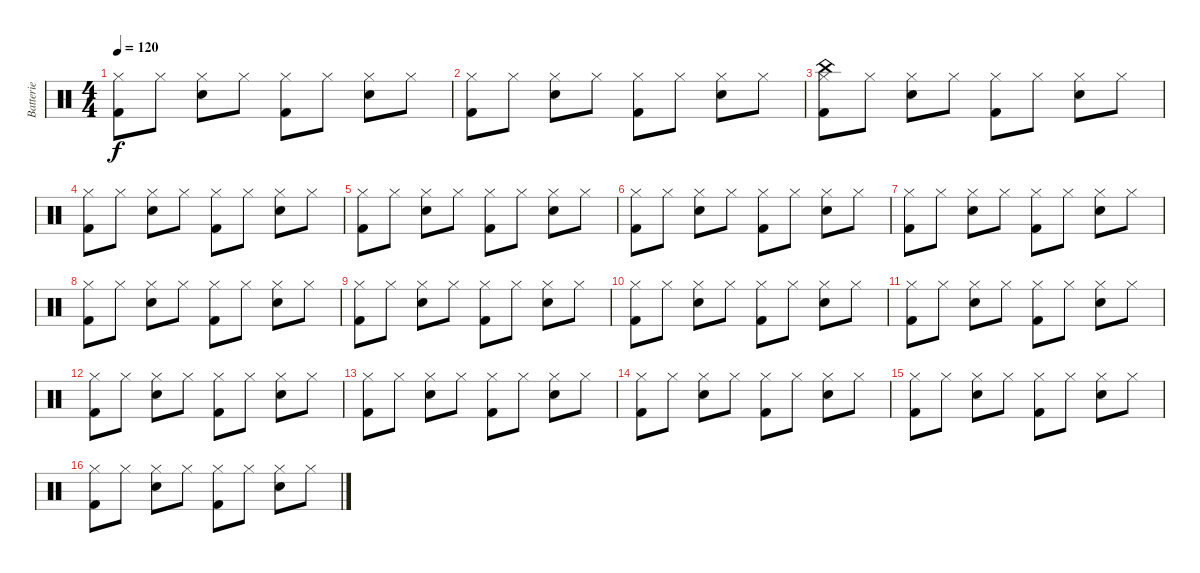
\track ("Batterie" "Batterie") {instrument percussion}
\staff {score}
\articulation defaults
\ts (4 4)
\tempo 120
\clef neutral
\ks c
("Hi-Hat (closed)" "Kick (hit) 2").8{dy f} "Hi-Hat (closed)".8 ("Hi-Hat (closed)" "Electric Snare (hit)").8 "Hi-Hat (closed)".8 ("Hi-Hat (closed)" "Kick (hit) 2").8 "Hi-Hat (closed)".8 ("Hi-Hat (closed)" "Electric Snare (hit)").8 "Hi-Hat (closed)".8 |
("Hi-Hat (closed)" "Kick (hit) 2").8 "Hi-Hat (closed)".8 ("Hi-Hat (closed)" "Electric Snare (hit)").8 "Hi-Hat (closed)".8 ("Hi-Hat (closed)" "Kick (hit) 2").8 "Hi-Hat (closed)".8 ("Hi-Hat (closed)" "Electric Snare (hit)").8 "Hi-Hat (closed)".8 |
("Hi-Hat (closed)" "Kick (hit) 2" "China (hit)").8 "Hi-Hat (closed)".8 ("Hi-Hat (closed)" "Electric Snare (hit)").8 "Hi-Hat (closed)".8 ("Hi-Hat (closed)" "Kick (hit) 2").8 "Hi-Hat (closed)".8 ("Hi-Hat (closed)" "Electric Snare (hit)").8 "Hi-Hat (closed)".8 |
("Hi-Hat (closed)" "Kick (hit) 2").8 "Hi-Hat (closed)".8 ("Hi-Hat (closed)" "Electric Snare (hit)").8 "Hi-Hat (closed)".8 ("Hi-Hat (closed)" "Kick (hit) 2").8 "Hi-Hat (closed)".8 ("Hi-Hat (closed)" "Electric Snare (hit)").8 "Hi-Hat (closed)".8 |
("Hi-Hat (closed)" "Kick (hit) 2").8 "Hi-Hat (closed)".8 ("Hi-Hat (closed)" "Electric Snare (hit)").8 "Hi-Hat (closed)".8 ("Hi-Hat (closed)" "Kick (hit) 2").8 "Hi-Hat (closed)".8 ("Hi-Hat (closed)" "Electric Snare (hit)").8 "Hi-Hat (closed)".8 |
("Hi-Hat (closed)" "Kick (hit) 2").8 "Hi-Hat (closed)".8 ("Hi-Hat (closed)" "Electric Snare (hit)").8 "Hi-Hat (closed)".8 ("Hi-Hat (closed)" "Kick (hit) 2").8 "Hi-Hat (closed)".8 ("Hi-Hat (closed)" "Electric Snare (hit)").8 "Hi-Hat (closed)".8 |
("Hi-Hat (closed)" "Kick (hit) 2").8 "Hi-Hat (closed)".8 ("Hi-Hat (closed)" "Electric Snare (hit)").8 "Hi-Hat (closed)".8 ("Hi-Hat (closed)" "Kick (hit) 2").8 "Hi-Hat (closed)".8 ("Hi-Hat (closed)" "Electric Snare (hit)").8 "Hi-Hat (closed)".8 |
("Hi-Hat (closed)" "Kick (hit) 2").8 "Hi-Hat (closed)".8 ("Hi-Hat (closed)" "Electric Snare (hit)").8 "Hi-Hat (closed)".8 ("Hi-Hat (closed)" "Kick (hit) 2").8 "Hi-Hat (closed)".8 ("Hi-Hat (closed)" "Electric Snare (hit)").8 "Hi-Hat (closed)".8 |
("Hi-Hat (closed)" "Kick (hit) 2").8 "Hi-Hat (closed)".8 ("Hi-Hat (closed)" "Electric Snare (hit)").8 "Hi-Hat (closed)".8 ("Hi-Hat (closed)" "Kick (hit) 2").8 "Hi-Hat (closed)".8 ("Hi-Hat (closed)" "Electric Snare (hit)").8 "Hi-Hat (closed)".8 |
("Hi-Hat (closed)" "Kick (hit) 2").8 "Hi-Hat (closed)".8 ("Hi-Hat (closed)" "Electric Snare (hit)").8 "Hi-Hat (closed)".8 ("Hi-Hat (closed)" "Kick (hit) 2").8 "Hi-Hat (closed)".8 ("Hi-Hat (closed)" "Electric Snare (hit)").8 "Hi-Hat (closed)".8 |
("Hi-Hat (closed)" "Kick (hit) 2").8 "Hi-Hat (closed)".8 ("Hi-Hat (closed)" "Electric Snare (hit)").8 "Hi-Hat (closed)".8 ("Hi-Hat (closed)" "Kick (hit) 2").8 "Hi-Hat (closed)".8 ("Hi-Hat (closed)" "Electric Snare (hit)").8 "Hi-Hat (closed)".8 |
("Hi-Hat (closed)" "Kick (hit) 2").8 "Hi-Hat (closed)".8 ("Hi-Hat (closed)" "Electric Snare (hit)").8 "Hi-Hat (closed)".8 ("Hi-Hat (closed)" "Kick (hit) 2").8 "Hi-Hat (closed)".8 ("Hi-Hat (closed)" "Electric Snare (hit)").8 "Hi-Hat (closed)".8 |
("Hi-Hat (closed)" "Kick (hit) 2").8 "Hi-Hat (closed)".8 ("Hi-Hat (closed)" "Electric Snare (hit)").8 "Hi-Hat (closed)".8 ("Hi-Hat (closed)" "Kick (hit) 2").8 "Hi-Hat (closed)".8 ("Hi-Hat (closed)" "Electric Snare (hit)").8 "Hi-Hat (closed)".8 |
("Hi-Hat (closed)" "Kick (hit) 2").8 "Hi-Hat (closed)".8 ("Hi-Hat (closed)" "Electric Snare (hit)").8 "Hi-Hat (closed)".8 ("Hi-Hat (closed)" "Kick (hit) 2").8 "Hi-Hat (closed)".8 ("Hi-Hat (closed)" "Electric Snare (hit)").8 "Hi-Hat (closed)".8 |
("Hi-Hat (closed)" "Kick (hit) 2").8 "Hi-Hat (closed)".8 ("Hi-Hat (closed)" "Electric Snare (hit)").8 "Hi-Hat (closed)".8 ("Hi-Hat (closed)" "Kick (hit) 2").8 "Hi-Hat (closed)".8 ("Hi-Hat (closed)" "Electric Snare (hit)").8 "Hi-Hat (closed)".8 |
("Hi-Hat (closed)" "Kick (hit) 2").8 "Hi-Hat (closed)".8 ("Hi-Hat (closed)" "Electric Snare (hit)").8 "Hi-Hat (closed)".8 ("Hi-Hat (closed)" "Kick (hit) 2").8 "Hi-Hat (closed)".8 ("Hi-Hat (closed)" "Electric Snare (hit)").8 "Hi-Hat (closed)".8
